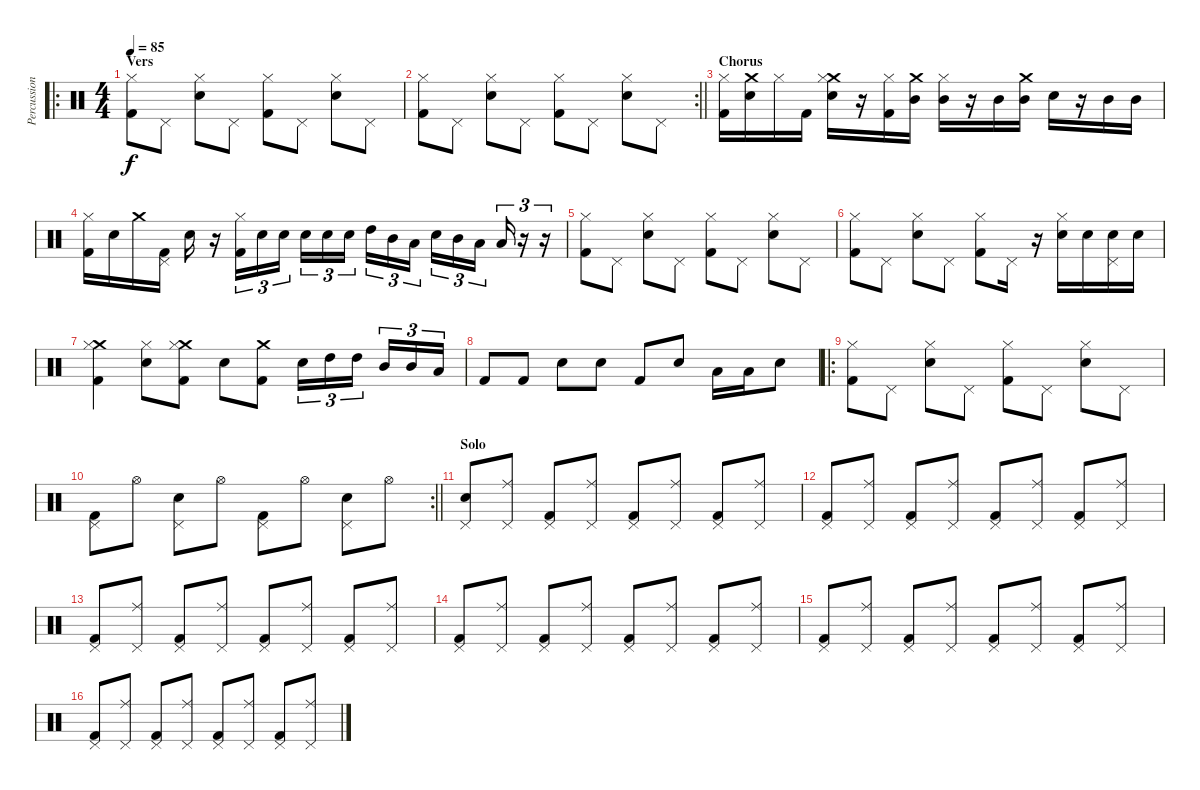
\track ("Percussion" "Percussion") {instrument percussion}
\staff {score}
\articulation defaults
\ro
\ts (4 4)
\section ("" "Vers")
\tempo 85
\clef neutral
\ks c
("Hi-Hat (closed)" "Kick (hit) 2").8{dy f} "Pedal Hi-Hat (hit)".8 ("Hi-Hat (closed)" "Snare (hit) 2").8 "Pedal Hi-Hat (hit)".8 ("Hi-Hat (closed)" "Kick (hit) 2").8 "Pedal Hi-Hat (hit)".8 ("Hi-Hat (closed)" "Snare (hit) 2").8 "Pedal Hi-Hat (hit)".8 |
\rc 2
\barLineRight lightlight
("Hi-Hat (closed)" "Kick (hit) 2").8 "Pedal Hi-Hat (hit)".8 ("Hi-Hat (closed)" "Snare (hit) 2").8 "Pedal Hi-Hat (hit)".8 ("Hi-Hat (closed)" "Kick (hit) 2").8 "Pedal Hi-Hat (hit)".8 ("Hi-Hat (closed)" "Snare (hit) 2").8 "Pedal Hi-Hat (hit)".8 |
\section ("" "Chorus")
("Hi-Hat (closed)" "Kick (hit) 2").16 ("Crash medium (hit)" "Snare (hit) 2").16 "Hi-Hat (closed)".16 "Kick (hit) 2".16 ("Crash medium (hit)" "Hi-Hat (closed)" "Snare (hit) 2").16 r.16 ("Hi-Hat (closed)" "Kick (hit) 2").16 ("Crash medium (hit)" "Mid Tom (hit)").16 ("Hi-Hat (closed)" "Mid Tom (hit)").16 r.16 "Mid Tom (hit)".16 ("Crash medium (hit)" "Mid Tom (hit)").16 "Snare (hit) 2".16 r.16 "Mid Tom (hit)".16 "Mid Tom (hit)".16 |
("Hi-Hat (closed)" "Kick (hit) 2").16 "Snare (hit) 2".16 "Crash medium (hit)".16 ("Pedal Hi-Hat (hit)" "Kick (hit) 2").16 "Snare (hit) 2".16 r.16 ("Hi-Hat (closed)" "Kick (hit) 2").16{tu (3 2)} "Snare (hit) 2".16{tu (3 2)} "Snare (hit) 2".16{tu (3 2)} "Snare (hit) 2".16{tu (3 2)} "Snare (hit) 2".16{tu (3 2)} "Snare (hit) 2".16{tu (3 2) beam splitsecondary} "High Tom (hit)".16{tu (3 2)} "Mid Tom (hit)".16{tu (3 2)} "Low Tom (hit)".16{tu (3 2)} "Snare (hit) 2".16{tu (3 2)} "Mid Tom (hit)".16{tu (3 2)} "Low Tom (hit)".16{tu (3 2) beam splitsecondary} "Low Tom (hit)".16{tu (3 2)} r.16{tu (3 2)} r.16{tu (3 2)} |
("Hi-Hat (closed)" "Kick (hit) 2").8 "Pedal Hi-Hat (hit)".8 ("Hi-Hat (closed)" "Snare (hit) 2").8 "Pedal Hi-Hat (hit)".8 ("Hi-Hat (closed)" "Kick (hit) 2").8 "Pedal Hi-Hat (hit)".8 ("Hi-Hat (closed)" "Snare (hit) 2").8 "Pedal Hi-Hat (hit)".8 |
("Hi-Hat (closed)" "Kick (hit) 2").8 "Pedal Hi-Hat (hit)".8 ("Hi-Hat (closed)" "Snare (hit) 2").8 "Pedal Hi-Hat (hit)".8 ("Hi-Hat (closed)" "Kick (hit) 2").8 "Pedal Hi-Hat (hit)".16 r.16 ("Hi-Hat (closed)" "Snare (hit) 2").16 "Snare (hit) 2".16 ("Pedal Hi-Hat (hit)" "Snare (hit) 2").16 "Snare (hit) 2".16 |
("Crash medium (hit)" "Kick (hit) 2" "Hi-Hat (closed)").4 ("Snare (hit) 2" "Hi-Hat (closed)").8 ("Crash medium (hit)" "Kick (hit) 2" "Hi-Hat (closed)").8 "Snare (hit) 2".8 ("Crash medium (hit)" "Kick (hit) 2").8 "Snare (hit) 2".16{tu (3 2)} "High Tom (hit)".16{tu (3 2)} "High Tom (hit)".16{tu (3 2) beam splitsecondary} "Mid Tom (hit)".16{tu (3 2)} "Mid Tom (hit)".16{tu (3 2)} "Low Tom (hit)".16{tu (3 2)} |
"Kick (hit) 2".8 "Kick (hit) 2".8 "Snare (hit) 2".8 "Snare (hit) 2".8 "Kick (hit) 2".8 "Snare (hit) 2".8 "Low Tom (hit)".16 "Low Tom (hit)".16 "Snare (hit) 2".8 |
\ro
("Hi-Hat (closed)" "Kick (hit) 2").8 "Pedal Hi-Hat (hit)".8 ("Hi-Hat (closed)" "Snare (hit) 2").8 "Pedal Hi-Hat (hit)".8 ("Hi-Hat (closed)" "Kick (hit) 2").8 "Pedal Hi-Hat (hit)".8 ("Hi-Hat (closed)" "Snare (hit) 2").8 "Pedal Hi-Hat (hit)".8 |
\rc 2
\barLineRight lightlight
("Pedal Hi-Hat (hit)" "Kick (hit) 2").8 "Hi-Hat (open)".8 ("Pedal Hi-Hat (hit)" "Snare (hit) 2").8 "Hi-Hat (open)".8 ("Pedal Hi-Hat (hit)" "Kick (hit) 2").8 "Hi-Hat (open)".8 ("Pedal Hi-Hat (hit)" "Snare (hit) 2").8 "Hi-Hat (open)".8 |
\section ("" "Solo")
("Snare (hit) 2" "Pedal Hi-Hat (hit)").8 ("Pedal Hi-Hat (hit)" "Ride (middle)").8 ("Kick (hit) 2" "Pedal Hi-Hat (hit)").8 ("Pedal Hi-Hat (hit)" "Ride (middle)").8 ("Kick (hit) 2" "Pedal Hi-Hat (hit)").8 ("Pedal Hi-Hat (hit)" "Ride (middle)").8 ("Kick (hit) 2" "Pedal Hi-Hat (hit)").8 ("Pedal Hi-Hat (hit)" "Ride (middle)").8 |
("Kick (hit) 2" "Pedal Hi-Hat (hit)").8 ("Pedal Hi-Hat (hit)" "Ride (middle)").8 ("Kick (hit) 2" "Pedal Hi-Hat (hit)").8 ("Pedal Hi-Hat (hit)" "Ride (middle)").8 ("Kick (hit) 2" "Pedal Hi-Hat (hit)").8 ("Pedal Hi-Hat (hit)" "Ride (middle)").8 ("Kick (hit) 2" "Pedal Hi-Hat (hit)").8 ("Pedal Hi-Hat (hit)" "Ride (middle)").8 |
("Kick (hit) 2" "Pedal Hi-Hat (hit)").8 ("Pedal Hi-Hat (hit)" "Ride (middle)").8 ("Kick (hit) 2" "Pedal Hi-Hat (hit)").8 ("Pedal Hi-Hat (hit)" "Ride (middle)").8 ("Kick (hit) 2" "Pedal Hi-Hat (hit)").8 ("Pedal Hi-Hat (hit)" "Ride (middle)").8 ("Kick (hit) 2" "Pedal Hi-Hat (hit)").8 ("Pedal Hi-Hat (hit)" "Ride (middle)").8 |
("Kick (hit) 2" "Pedal Hi-Hat (hit)").8 ("Pedal Hi-Hat (hit)" "Ride (middle)").8 ("Kick (hit) 2" "Pedal Hi-Hat (hit)").8 ("Pedal Hi-Hat (hit)" "Ride (middle)").8 ("Kick (hit) 2" "Pedal Hi-Hat (hit)").8 ("Pedal Hi-Hat (hit)" "Ride (middle)").8 ("Kick (hit) 2" "Pedal Hi-Hat (hit)").8 ("Pedal Hi-Hat (hit)" "Ride (middle)").8 |
("Kick (hit) 2" "Pedal Hi-Hat (hit)").8 ("Pedal Hi-Hat (hit)" "Ride (middle)").8 ("Kick (hit) 2" "Pedal Hi-Hat (hit)").8 ("Pedal Hi-Hat (hit)" "Ride (middle)").8 ("Kick (hit) 2" "Pedal Hi-Hat (hit)").8 ("Pedal Hi-Hat (hit)" "Ride (middle)").8 ("Kick (hit) 2" "Pedal Hi-Hat (hit)").8 ("Pedal Hi-Hat (hit)" "Ride (middle)").8 |
("Kick (hit) 2" "Pedal Hi-Hat (hit)").8 ("Pedal Hi-Hat (hit)" "Ride (middle)").8 ("Kick (hit) 2" "Pedal Hi-Hat (hit)").8 ("Pedal Hi-Hat (hit)" "Ride (middle)").8 ("Kick (hit) 2" "Pedal Hi-Hat (hit)").8 ("Pedal Hi-Hat (hit)" "Ride (middle)").8 ("Kick (hit) 2" "Pedal Hi-Hat (hit)").8 ("Pedal Hi-Hat (hit)" "Ride (middle)").8
